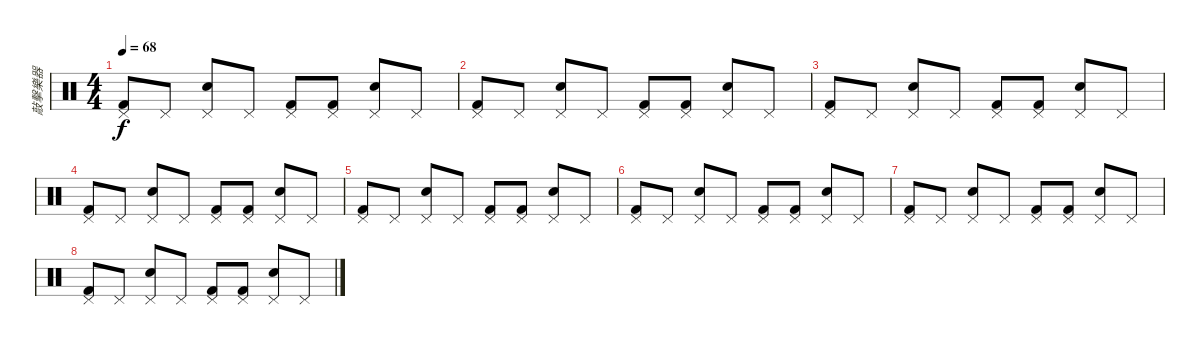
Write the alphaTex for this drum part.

\track ("敲擊樂器" "敲擊樂器") {instrument percussion}
\staff {score}
\articulation defaults
\ts (4 4)
\tempo 68
\clef neutral
\ks c
("Kick (hit) 2" "Pedal Hi-Hat (hit)").8{dy f} "Pedal Hi-Hat (hit)".8 ("Electric Snare (hit)" "Pedal Hi-Hat (hit)").8 "Pedal Hi-Hat (hit)".8 ("Kick (hit) 2" "Pedal Hi-Hat (hit)").8 ("Kick (hit) 2" "Pedal Hi-Hat (hit)").8 ("Electric Snare (hit)" "Pedal Hi-Hat (hit)").8 "Pedal Hi-Hat (hit)".8 |
("Kick (hit) 2" "Pedal Hi-Hat (hit)").8 "Pedal Hi-Hat (hit)".8 ("Electric Snare (hit)" "Pedal Hi-Hat (hit)").8 "Pedal Hi-Hat (hit)".8 ("Kick (hit) 2" "Pedal Hi-Hat (hit)").8 ("Kick (hit) 2" "Pedal Hi-Hat (hit)").8 ("Electric Snare (hit)" "Pedal Hi-Hat (hit)").8 "Pedal Hi-Hat (hit)".8 |
("Kick (hit) 2" "Pedal Hi-Hat (hit)").8 "Pedal Hi-Hat (hit)".8 ("Electric Snare (hit)" "Pedal Hi-Hat (hit)").8 "Pedal Hi-Hat (hit)".8 ("Kick (hit) 2" "Pedal Hi-Hat (hit)").8 ("Kick (hit) 2" "Pedal Hi-Hat (hit)").8 ("Electric Snare (hit)" "Pedal Hi-Hat (hit)").8 "Pedal Hi-Hat (hit)".8 |
("Kick (hit) 2" "Pedal Hi-Hat (hit)").8 "Pedal Hi-Hat (hit)".8 ("Electric Snare (hit)" "Pedal Hi-Hat (hit)").8 "Pedal Hi-Hat (hit)".8 ("Kick (hit) 2" "Pedal Hi-Hat (hit)").8 ("Kick (hit) 2" "Pedal Hi-Hat (hit)").8 ("Electric Snare (hit)" "Pedal Hi-Hat (hit)").8 "Pedal Hi-Hat (hit)".8 |
("Kick (hit) 2" "Pedal Hi-Hat (hit)").8 "Pedal Hi-Hat (hit)".8 ("Electric Snare (hit)" "Pedal Hi-Hat (hit)").8 "Pedal Hi-Hat (hit)".8 ("Kick (hit) 2" "Pedal Hi-Hat (hit)").8 ("Kick (hit) 2" "Pedal Hi-Hat (hit)").8 ("Electric Snare (hit)" "Pedal Hi-Hat (hit)").8 "Pedal Hi-Hat (hit)".8 |
("Kick (hit) 2" "Pedal Hi-Hat (hit)").8 "Pedal Hi-Hat (hit)".8 ("Electric Snare (hit)" "Pedal Hi-Hat (hit)").8 "Pedal Hi-Hat (hit)".8 ("Kick (hit) 2" "Pedal Hi-Hat (hit)").8 ("Kick (hit) 2" "Pedal Hi-Hat (hit)").8 ("Electric Snare (hit)" "Pedal Hi-Hat (hit)").8 "Pedal Hi-Hat (hit)".8 |
("Kick (hit) 2" "Pedal Hi-Hat (hit)").8 "Pedal Hi-Hat (hit)".8 ("Electric Snare (hit)" "Pedal Hi-Hat (hit)").8 "Pedal Hi-Hat (hit)".8 ("Kick (hit) 2" "Pedal Hi-Hat (hit)").8 ("Kick (hit) 2" "Pedal Hi-Hat (hit)").8 ("Electric Snare (hit)" "Pedal Hi-Hat (hit)").8 "Pedal Hi-Hat (hit)".8 |
("Kick (hit) 2" "Pedal Hi-Hat (hit)").8 "Pedal Hi-Hat (hit)".8 ("Electric Snare (hit)" "Pedal Hi-Hat (hit)").8 "Pedal Hi-Hat (hit)".8 ("Kick (hit) 2" "Pedal Hi-Hat (hit)").8 ("Kick (hit) 2" "Pedal Hi-Hat (hit)").8 ("Electric Snare (hit)" "Pedal Hi-Hat (hit)").8 "Pedal Hi-Hat (hit)".8
